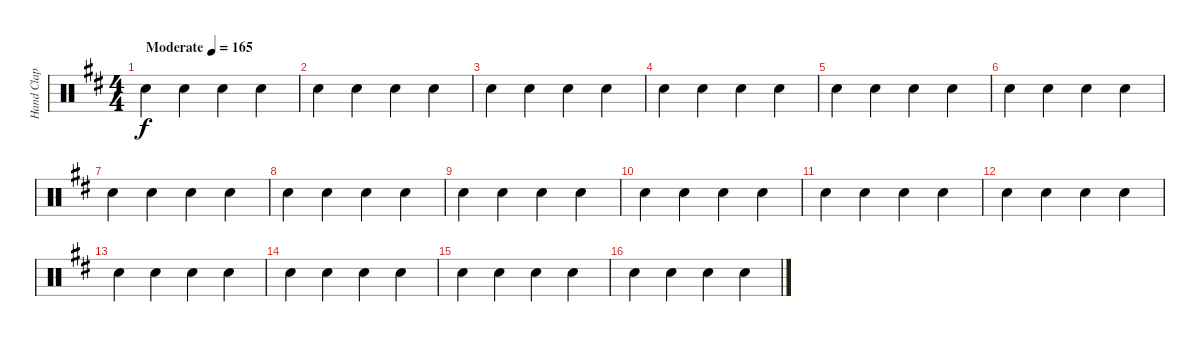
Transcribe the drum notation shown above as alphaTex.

\track ("Hand Clap" "Hand Clap") {instrument percussion}
\staff {score}
\articulation defaults
\ts (4 4)
\tempo (165 "Moderate")
\clef neutral
\ks d "Hand Clap (hit)".4{dy f} "Hand Clap (hit)".4 "Hand Clap (hit)".4 "Hand Clap (hit)".4
|
"Hand Clap (hit)".4 "Hand Clap (hit)".4 "Hand Clap (hit)".4 "Hand Clap (hit)".4 |
"Hand Clap (hit)".4 "Hand Clap (hit)".4 "Hand Clap (hit)".4 "Hand Clap (hit)".4 |
"Hand Clap (hit)".4 "Hand Clap (hit)".4 "Hand Clap (hit)".4 "Hand Clap (hit)".4 |
"Hand Clap (hit)".4 "Hand Clap (hit)".4 "Hand Clap (hit)".4 "Hand Clap (hit)".4 |
"Hand Clap (hit)".4 "Hand Clap (hit)".4 "Hand Clap (hit)".4 "Hand Clap (hit)".4 |
"Hand Clap (hit)".4 "Hand Clap (hit)".4 "Hand Clap (hit)".4 "Hand Clap (hit)".4 |
"Hand Clap (hit)".4 "Hand Clap (hit)".4 "Hand Clap (hit)".4 "Hand Clap (hit)".4 |
"Hand Clap (hit)".4 "Hand Clap (hit)".4 "Hand Clap (hit)".4 "Hand Clap (hit)".4 |
"Hand Clap (hit)".4 "Hand Clap (hit)".4 "Hand Clap (hit)".4 "Hand Clap (hit)".4 |
"Hand Clap (hit)".4 "Hand Clap (hit)".4 "Hand Clap (hit)".4 "Hand Clap (hit)".4 |
"Hand Clap (hit)".4 "Hand Clap (hit)".4 "Hand Clap (hit)".4 "Hand Clap (hit)".4 |
"Hand Clap (hit)".4 "Hand Clap (hit)".4 "Hand Clap (hit)".4 "Hand Clap (hit)".4 |
"Hand Clap (hit)".4 "Hand Clap (hit)".4 "Hand Clap (hit)".4 "Hand Clap (hit)".4 |
"Hand Clap (hit)".4 "Hand Clap (hit)".4 "Hand Clap (hit)".4 "Hand Clap (hit)".4 |
"Hand Clap (hit)".4 "Hand Clap (hit)".4 "Hand Clap (hit)".4 "Hand Clap (hit)".4
